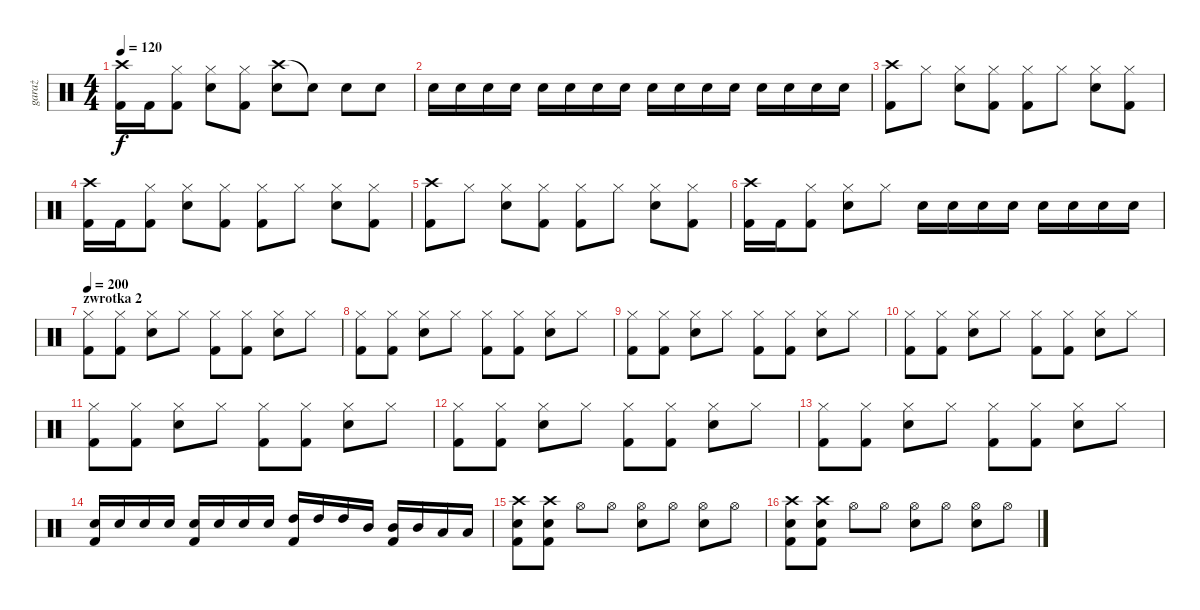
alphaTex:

\track ("garaż" "garaż") {instrument percussion}
\staff {score}
\articulation defaults
\ts (4 4)
\tempo 120
\clef neutral
\ks c
("Crash high (hit)" "Kick (hit) 2").16{dy f} "Kick (hit) 2".16 ("Hi-Hat (closed)" "Kick (hit) 2").8 ("Hi-Hat (closed)" "Snare (hit) 2").8 ("Hi-Hat (closed)" "Kick (hit) 2").8 ("Crash high (hit)" "Snare (hit) 2").8 "Snare (hit)"{t}.8 "Snare (hit) 2".8 "Snare (hit) 2".8{volume 0} |
"Snare (hit) 2".16{volume 16} "Snare (hit) 2".16 "Snare (hit) 2".16 "Snare (hit) 2".16 "Snare (hit) 2".16 "Snare (hit) 2".16 "Snare (hit) 2".16 "Snare (hit) 2".16 "Snare (hit) 2".16 "Snare (hit) 2".16 "Snare (hit) 2".16 "Snare (hit) 2".16 "Snare (hit) 2".16 "Snare (hit) 2".16 "Snare (hit) 2".16 "Snare (hit) 2".16 |
("Crash high (hit)" "Kick (hit) 2").8{volume 13} "Hi-Hat (closed)".8 ("Hi-Hat (closed)" "Snare (hit) 2").8 ("Hi-Hat (closed)" "Kick (hit) 2").8 ("Hi-Hat (closed)" "Kick (hit) 2").8 "Hi-Hat (closed)".8 ("Hi-Hat (closed)" "Snare (hit) 2").8 ("Hi-Hat (closed)" "Kick (hit) 2").8 |
("Crash high (hit)" "Kick (hit) 2").16 "Kick (hit) 2".16 ("Hi-Hat (closed)" "Kick (hit) 2").8 ("Hi-Hat (closed)" "Snare (hit) 2").8 ("Hi-Hat (closed)" "Kick (hit) 2").8 ("Hi-Hat (closed)" "Kick (hit) 2").8 "Hi-Hat (closed)".8 ("Hi-Hat (closed)" "Snare (hit) 2").8 ("Hi-Hat (closed)" "Kick (hit) 2").8 |
("Crash high (hit)" "Kick (hit) 2").8 "Hi-Hat (closed)".8 ("Hi-Hat (closed)" "Snare (hit) 2").8 ("Hi-Hat (closed)" "Kick (hit) 2").8 ("Hi-Hat (closed)" "Kick (hit) 2").8 "Hi-Hat (closed)".8 ("Hi-Hat (closed)" "Snare (hit) 2").8 ("Hi-Hat (closed)" "Kick (hit) 2").8 |
("Crash high (hit)" "Kick (hit) 2").16 "Kick (hit) 2".16 ("Hi-Hat (closed)" "Kick (hit) 2").8 ("Hi-Hat (closed)" "Snare (hit) 2").8 "Hi-Hat (closed)".8 "Snare (hit) 2".16 "Snare (hit) 2".16 "Snare (hit) 2".16 "Snare (hit) 2".16 "Snare (hit) 2".16 "Snare (hit) 2".16 "Snare (hit) 2".16 "Snare (hit) 2".16 |
\section ("" "zwrotka 2")
\tempo 200
("Hi-Hat (closed)" "Kick (hit) 2").8 ("Hi-Hat (closed)" "Kick (hit) 2").8 ("Hi-Hat (closed)" "Snare (hit) 2").8 "Hi-Hat (closed)".8 ("Hi-Hat (closed)" "Kick (hit) 2").8 ("Hi-Hat (closed)" "Kick (hit) 2").8 ("Hi-Hat (closed)" "Snare (hit) 2").8 "Hi-Hat (closed)".8 |
("Hi-Hat (closed)" "Kick (hit) 2").8 ("Hi-Hat (closed)" "Kick (hit) 2").8 ("Hi-Hat (closed)" "Snare (hit) 2").8 "Hi-Hat (closed)".8 ("Hi-Hat (closed)" "Kick (hit) 2").8 ("Hi-Hat (closed)" "Kick (hit) 2").8 ("Hi-Hat (closed)" "Snare (hit) 2").8 "Hi-Hat (closed)".8 |
("Hi-Hat (closed)" "Kick (hit) 2").8 ("Hi-Hat (closed)" "Kick (hit) 2").8 ("Hi-Hat (closed)" "Snare (hit) 2").8 "Hi-Hat (closed)".8 ("Hi-Hat (closed)" "Kick (hit) 2").8 ("Hi-Hat (closed)" "Kick (hit) 2").8 ("Hi-Hat (closed)" "Snare (hit) 2").8 "Hi-Hat (closed)".8 |
("Hi-Hat (closed)" "Kick (hit) 2").8 ("Hi-Hat (closed)" "Kick (hit) 2").8 ("Hi-Hat (closed)" "Snare (hit) 2").8 "Hi-Hat (closed)".8 ("Hi-Hat (closed)" "Kick (hit) 2").8 ("Hi-Hat (closed)" "Kick (hit) 2").8 ("Hi-Hat (closed)" "Snare (hit) 2").8 "Hi-Hat (closed)".8 |
("Hi-Hat (closed)" "Kick (hit) 2").8 ("Hi-Hat (closed)" "Kick (hit) 2").8 ("Hi-Hat (closed)" "Snare (hit) 2").8 "Hi-Hat (closed)".8 ("Hi-Hat (closed)" "Kick (hit) 2").8 ("Hi-Hat (closed)" "Kick (hit) 2").8 ("Hi-Hat (closed)" "Snare (hit) 2").8 "Hi-Hat (closed)".8 |
("Hi-Hat (closed)" "Kick (hit) 2").8 ("Hi-Hat (closed)" "Kick (hit) 2").8 ("Hi-Hat (closed)" "Snare (hit) 2").8 "Hi-Hat (closed)".8 ("Hi-Hat (closed)" "Kick (hit) 2").8 ("Hi-Hat (closed)" "Kick (hit) 2").8 ("Hi-Hat (closed)" "Snare (hit) 2").8 "Hi-Hat (closed)".8 |
("Hi-Hat (closed)" "Kick (hit) 2").8 ("Hi-Hat (closed)" "Kick (hit) 2").8 ("Hi-Hat (closed)" "Snare (hit) 2").8 "Hi-Hat (closed)".8 ("Hi-Hat (closed)" "Kick (hit) 2").8 ("Hi-Hat (closed)" "Kick (hit) 2").8 ("Hi-Hat (closed)" "Snare (hit) 2").8 "Hi-Hat (closed)".8 |
("Snare (hit) 2" "Kick (hit) 2").16 "Snare (hit) 2".16 "Snare (hit) 2".16 "Snare (hit) 2".16 ("Snare (hit) 2" "Kick (hit) 2").16 "Snare (hit) 2".16 "Snare (hit) 2".16 "Snare (hit) 2".16 ("High Tom (hit)" "Kick (hit) 2").16 "High Tom (hit)".16 "High Tom (hit)".16 "Mid Tom (hit)".16 ("Mid Tom (hit)" "Kick (hit) 2").16 "Mid Tom (hit)".16 "Low Tom (hit)".16 "Low Tom (hit)".16 |
("Crash high (hit)" "Snare (hit) 2" "Kick (hit) 2").8 ("Crash high (hit)" "Snare (hit) 2" "Kick (hit) 2").8 "Hi-Hat (open)".8 "Hi-Hat (open)".8 ("Hi-Hat (open)" "Snare (hit) 2").8 "Hi-Hat (open)".8 ("Hi-Hat (open)" "Snare (hit) 2").8 "Hi-Hat (open)".8 |
("Crash high (hit)" "Snare (hit) 2" "Kick (hit) 2").8 ("Crash high (hit)" "Snare (hit) 2" "Kick (hit) 2").8 "Hi-Hat (open)".8 "Hi-Hat (open)".8 ("Hi-Hat (open)" "Snare (hit) 2").8 "Hi-Hat (open)".8 ("Hi-Hat (open)" "Snare (hit) 2").8 "Hi-Hat (open)".8
